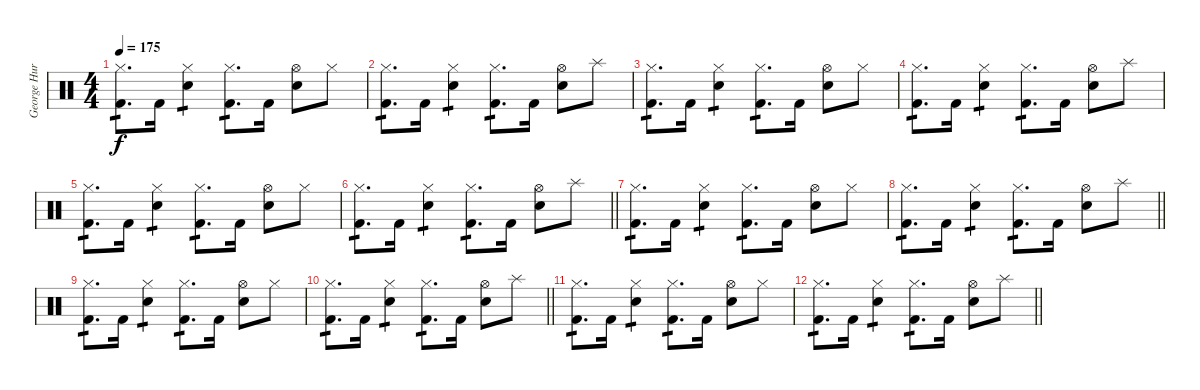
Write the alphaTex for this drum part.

\track ("George Hurley [Drums]" "George Hur") {instrument percussion}
\staff {score}
\articulation defaults
\ts (4 4)
\tempo 175
\clef neutral
\ks c
("Hi-Hat (closed)" "Kick (hit) 2").8{d tp 1 dy f} "Kick (hit) 2".16 ("Hi-Hat (closed)" "Electric Snare (hit)").4{tp 1} ("Hi-Hat (closed)" "Kick (hit) 2").8{d tp 1} "Kick (hit) 2".16 ("Hi-Hat (open)" "Electric Snare (hit)").8 "Hi-Hat (closed)".8 |
("Hi-Hat (closed)" "Kick (hit) 2").8{d tp 1} "Kick (hit) 2".16 ("Hi-Hat (closed)" "Electric Snare (hit)").4{tp 1} ("Hi-Hat (closed)" "Kick (hit) 2").8{d tp 1} "Kick (hit) 2".16 ("Hi-Hat (open)" "Electric Snare (hit)").8 "Splash (hit)".8 |
("Hi-Hat (closed)" "Kick (hit) 2").8{d tp 1} "Kick (hit) 2".16 ("Hi-Hat (closed)" "Electric Snare (hit)").4{tp 1} ("Hi-Hat (closed)" "Kick (hit) 2").8{d tp 1} "Kick (hit) 2".16 ("Hi-Hat (open)" "Electric Snare (hit)").8 "Hi-Hat (closed)".8 |
("Hi-Hat (closed)" "Kick (hit) 2").8{d tp 1} "Kick (hit) 2".16 ("Hi-Hat (closed)" "Electric Snare (hit)").4{tp 1} ("Hi-Hat (closed)" "Kick (hit) 2").8{d tp 1} "Kick (hit) 2".16 ("Hi-Hat (open)" "Electric Snare (hit)").8 "Splash (hit)".8 |
("Hi-Hat (closed)" "Kick (hit) 2").8{d tp 1 volume 7} "Kick (hit) 2".16 ("Hi-Hat (closed)" "Electric Snare (hit)").4{tp 1} ("Hi-Hat (closed)" "Kick (hit) 2").8{d tp 1} "Kick (hit) 2".16 ("Hi-Hat (open)" "Electric Snare (hit)").8 "Hi-Hat (closed)".8 |
\barLineRight lightlight
("Hi-Hat (closed)" "Kick (hit) 2").8{d tp 1} "Kick (hit) 2".16 ("Hi-Hat (closed)" "Electric Snare (hit)").4{tp 1} ("Hi-Hat (closed)" "Kick (hit) 2").8{d tp 1} "Kick (hit) 2".16 ("Hi-Hat (open)" "Electric Snare (hit)").8 "Splash (hit)".8 |
("Hi-Hat (closed)" "Kick (hit) 2").8{d tp 1} "Kick (hit) 2".16 ("Hi-Hat (closed)" "Electric Snare (hit)").4{tp 1} ("Hi-Hat (closed)" "Kick (hit) 2").8{d tp 1} "Kick (hit) 2".16 ("Hi-Hat (open)" "Electric Snare (hit)").8 "Hi-Hat (closed)".8 |
\barLineRight lightlight
("Hi-Hat (closed)" "Kick (hit) 2").8{d tp 1} "Kick (hit) 2".16 ("Hi-Hat (closed)" "Electric Snare (hit)").4{tp 1} ("Hi-Hat (closed)" "Kick (hit) 2").8{d tp 1} "Kick (hit) 2".16 ("Hi-Hat (open)" "Electric Snare (hit)").8 "Splash (hit)".8 |
("Hi-Hat (closed)" "Kick (hit) 2").8{d tp 1 volume 0} "Kick (hit) 2".16 ("Hi-Hat (closed)" "Electric Snare (hit)").4{tp 1} ("Hi-Hat (closed)" "Kick (hit) 2").8{d tp 1} "Kick (hit) 2".16 ("Hi-Hat (open)" "Electric Snare (hit)").8 "Hi-Hat (closed)".8 |
\barLineRight lightlight
("Hi-Hat (closed)" "Kick (hit) 2").8{d tp 1} "Kick (hit) 2".16 ("Hi-Hat (closed)" "Electric Snare (hit)").4{tp 1} ("Hi-Hat (closed)" "Kick (hit) 2").8{d tp 1} "Kick (hit) 2".16 ("Hi-Hat (open)" "Electric Snare (hit)").8 "Splash (hit)".8 |
("Hi-Hat (closed)" "Kick (hit) 2").8{d tp 1} "Kick (hit) 2".16 ("Hi-Hat (closed)" "Electric Snare (hit)").4{tp 1} ("Hi-Hat (closed)" "Kick (hit) 2").8{d tp 1} "Kick (hit) 2".16 ("Hi-Hat (open)" "Electric Snare (hit)").8 "Hi-Hat (closed)".8 |
\barLineRight lightlight
("Hi-Hat (closed)" "Kick (hit) 2").8{d tp 1} "Kick (hit) 2".16 ("Hi-Hat (closed)" "Electric Snare (hit)").4{tp 1} ("Hi-Hat (closed)" "Kick (hit) 2").8{d tp 1} "Kick (hit) 2".16 ("Hi-Hat (open)" "Electric Snare (hit)").8 "Splash (hit)".8
